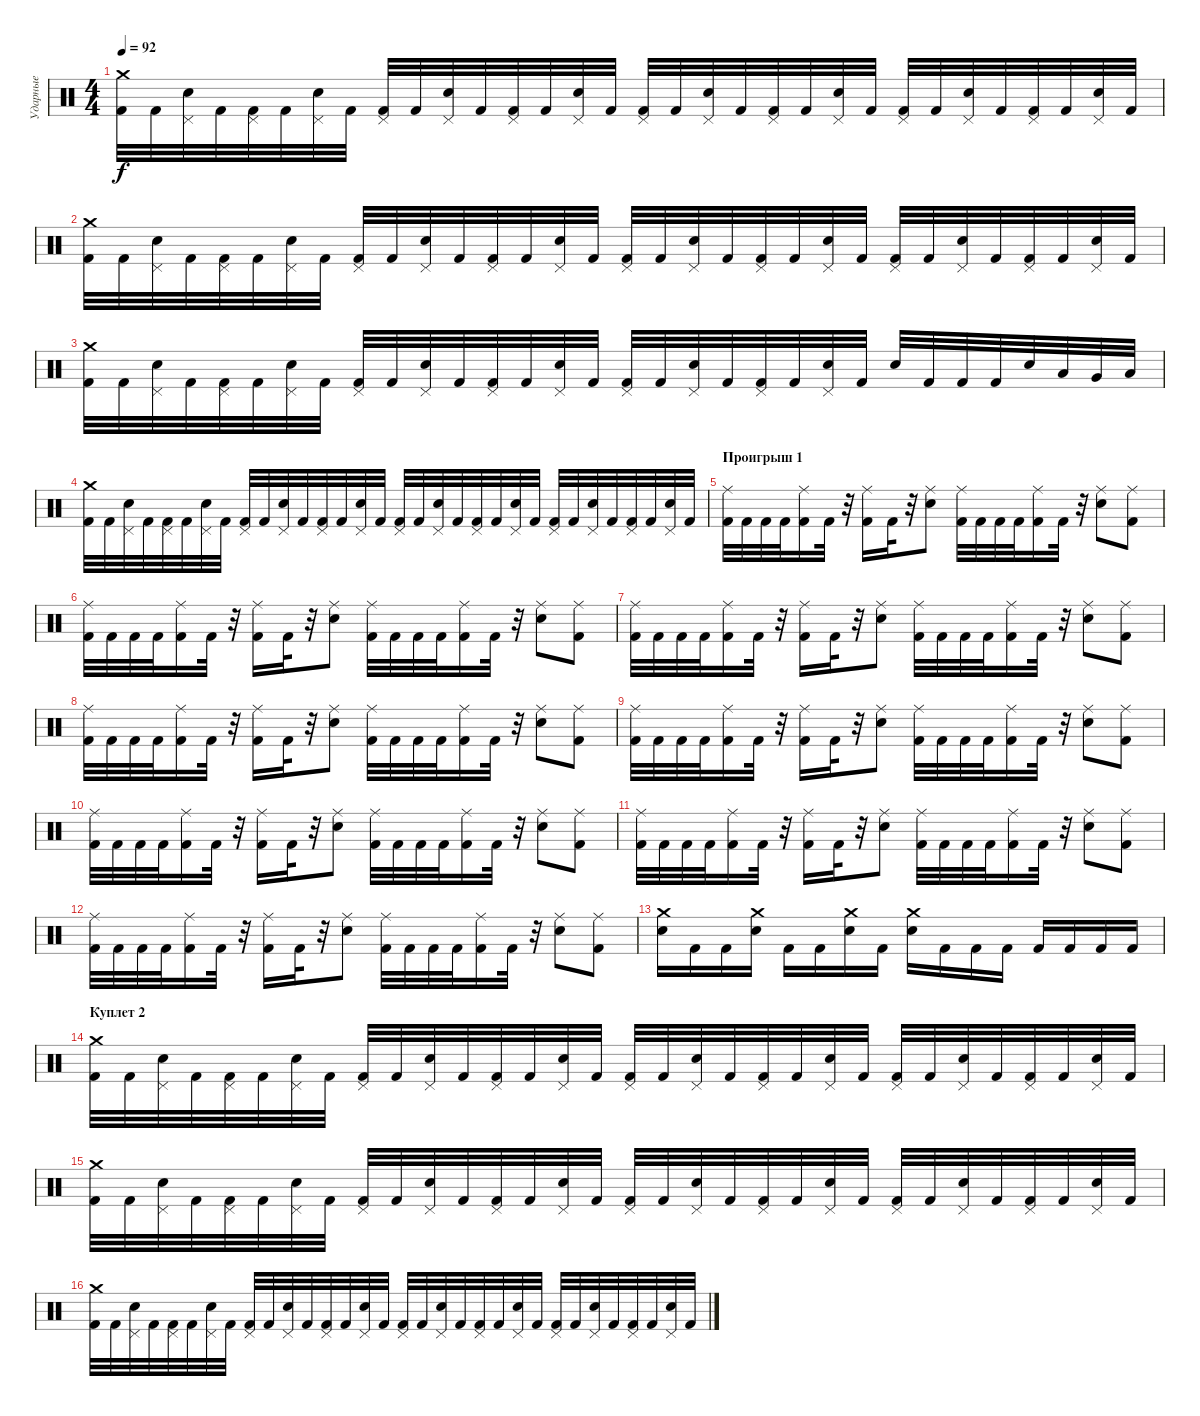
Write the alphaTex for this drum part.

\track ("Ударные" "Ударные") {instrument percussion}
\staff {score}
\articulation defaults
\ts (4 4)
\tempo 92
\clef neutral
\ks c
("Crash medium (hit)" "Kick (hit) 2").32{dy f} "Kick (hit) 2".32 ("Pedal Hi-Hat (hit)" "Electric Snare (hit)").32 "Kick (hit) 2".32 ("Pedal Hi-Hat (hit)" "Kick (hit) 2").32 "Kick (hit) 2".32 ("Pedal Hi-Hat (hit)" "Electric Snare (hit)").32 "Kick (hit) 2".32 ("Kick (hit) 2" "Pedal Hi-Hat (hit)").32 "Kick (hit) 2".32 ("Electric Snare (hit)" "Pedal Hi-Hat (hit)").32 "Kick (hit) 2".32 ("Kick (hit) 2" "Pedal Hi-Hat (hit)").32 "Kick (hit) 2".32 ("Electric Snare (hit)" "Pedal Hi-Hat (hit)").32 "Kick (hit) 2".32 ("Kick (hit) 2" "Pedal Hi-Hat (hit)").32 "Kick (hit) 2".32 ("Electric Snare (hit)" "Pedal Hi-Hat (hit)").32 "Kick (hit) 2".32 ("Kick (hit) 2" "Pedal Hi-Hat (hit)").32 "Kick (hit) 2".32 ("Electric Snare (hit)" "Pedal Hi-Hat (hit)").32 "Kick (hit) 2".32 ("Kick (hit) 2" "Pedal Hi-Hat (hit)").32 "Kick (hit) 2".32 ("Electric Snare (hit)" "Pedal Hi-Hat (hit)").32 "Kick (hit) 2".32 ("Kick (hit) 2" "Pedal Hi-Hat (hit)").32 "Kick (hit) 2".32 ("Electric Snare (hit)" "Pedal Hi-Hat (hit)").32 "Kick (hit) 2".32 |
("Crash medium (hit)" "Kick (hit) 2").32 "Kick (hit) 2".32 ("Pedal Hi-Hat (hit)" "Electric Snare (hit)").32 "Kick (hit) 2".32 ("Pedal Hi-Hat (hit)" "Kick (hit) 2").32 "Kick (hit) 2".32 ("Pedal Hi-Hat (hit)" "Electric Snare (hit)").32 "Kick (hit) 2".32 ("Kick (hit) 2" "Pedal Hi-Hat (hit)").32 "Kick (hit) 2".32 ("Electric Snare (hit)" "Pedal Hi-Hat (hit)").32 "Kick (hit) 2".32 ("Kick (hit) 2" "Pedal Hi-Hat (hit)").32 "Kick (hit) 2".32 ("Electric Snare (hit)" "Pedal Hi-Hat (hit)").32 "Kick (hit) 2".32 ("Kick (hit) 2" "Pedal Hi-Hat (hit)").32 "Kick (hit) 2".32 ("Electric Snare (hit)" "Pedal Hi-Hat (hit)").32 "Kick (hit) 2".32 ("Kick (hit) 2" "Pedal Hi-Hat (hit)").32 "Kick (hit) 2".32 ("Electric Snare (hit)" "Pedal Hi-Hat (hit)").32 "Kick (hit) 2".32 ("Kick (hit) 2" "Pedal Hi-Hat (hit)").32 "Kick (hit) 2".32 ("Electric Snare (hit)" "Pedal Hi-Hat (hit)").32 "Kick (hit) 2".32 ("Kick (hit) 2" "Pedal Hi-Hat (hit)").32 "Kick (hit) 2".32 ("Electric Snare (hit)" "Pedal Hi-Hat (hit)").32 "Kick (hit) 2".32 |
("Crash medium (hit)" "Kick (hit) 2").32 "Kick (hit) 2".32 ("Pedal Hi-Hat (hit)" "Electric Snare (hit)").32 "Kick (hit) 2".32 ("Pedal Hi-Hat (hit)" "Kick (hit) 2").32 "Kick (hit) 2".32 ("Pedal Hi-Hat (hit)" "Electric Snare (hit)").32 "Kick (hit) 2".32 ("Kick (hit) 2" "Pedal Hi-Hat (hit)").32 "Kick (hit) 2".32 ("Electric Snare (hit)" "Pedal Hi-Hat (hit)").32 "Kick (hit) 2".32 ("Kick (hit) 2" "Pedal Hi-Hat (hit)").32 "Kick (hit) 2".32 ("Electric Snare (hit)" "Pedal Hi-Hat (hit)").32 "Kick (hit) 2".32 ("Kick (hit) 2" "Pedal Hi-Hat (hit)").32 "Kick (hit) 2".32 ("Electric Snare (hit)" "Pedal Hi-Hat (hit)").32 "Kick (hit) 2".32 ("Kick (hit) 2" "Pedal Hi-Hat (hit)").32 "Kick (hit) 2".32 ("Electric Snare (hit)" "Pedal Hi-Hat (hit)").32 "Kick (hit) 2".32 "Electric Snare (hit)".32 "Kick (hit) 2".32 "Kick (hit) 2".32 "Kick (hit) 2".32 "Electric Snare (hit)".32 "Low Floor Tom (hit)".32 "Very Low Tom (hit)".32 "Low Tom (hit)".32 |
("Crash medium (hit)" "Kick (hit) 2").32 "Kick (hit) 2".32 ("Pedal Hi-Hat (hit)" "Electric Snare (hit)").32 "Kick (hit) 2".32 ("Pedal Hi-Hat (hit)" "Kick (hit) 2").32 "Kick (hit) 2".32 ("Pedal Hi-Hat (hit)" "Electric Snare (hit)").32 "Kick (hit) 2".32 ("Kick (hit) 2" "Pedal Hi-Hat (hit)").32 "Kick (hit) 2".32 ("Electric Snare (hit)" "Pedal Hi-Hat (hit)").32 "Kick (hit) 2".32 ("Kick (hit) 2" "Pedal Hi-Hat (hit)").32 "Kick (hit) 2".32 ("Electric Snare (hit)" "Pedal Hi-Hat (hit)").32 "Kick (hit) 2".32 ("Kick (hit) 2" "Pedal Hi-Hat (hit)").32 "Kick (hit) 2".32 ("Electric Snare (hit)" "Pedal Hi-Hat (hit)").32 "Kick (hit) 2".32 ("Kick (hit) 2" "Pedal Hi-Hat (hit)").32 "Kick (hit) 2".32 ("Electric Snare (hit)" "Pedal Hi-Hat (hit)").32 "Kick (hit) 2".32 ("Kick (hit) 2" "Pedal Hi-Hat (hit)").32 "Kick (hit) 2".32 ("Electric Snare (hit)" "Pedal Hi-Hat (hit)").32 "Kick (hit) 2".32 ("Kick (hit) 2" "Pedal Hi-Hat (hit)").32 "Kick (hit) 2".32 ("Electric Snare (hit)" "Pedal Hi-Hat (hit)").32 "Kick (hit) 2".32 |
\section ("" "Проигрыш 1")
("Ride (middle)" "Kick (hit) 2").32 "Kick (hit) 2".32 "Kick (hit) 2".32 "Kick (hit) 2".32 ("Ride (middle)" "Kick (hit) 2").16 "Kick (hit) 2".32 r.32 ("Ride (middle)" "Kick (hit) 2").16 "Kick (hit) 2".32 r.32 ("Ride (middle)" "Electric Snare (hit)").8 ("Kick (hit) 2" "Ride (middle)").32 "Kick (hit) 2".32 "Kick (hit) 2".32 "Kick (hit) 2".32 ("Kick (hit) 2" "Ride (middle)").16 "Kick (hit) 2".32 r.32 ("Electric Snare (hit)" "Ride (middle)").8 ("Kick (hit) 2" "Ride (middle)").8 |
("Ride (middle)" "Kick (hit) 2").32 "Kick (hit) 2".32 "Kick (hit) 2".32 "Kick (hit) 2".32 ("Ride (middle)" "Kick (hit) 2").16 "Kick (hit) 2".32 r.32 ("Ride (middle)" "Kick (hit) 2").16 "Kick (hit) 2".32 r.32 ("Ride (middle)" "Electric Snare (hit)").8 ("Kick (hit) 2" "Ride (middle)").32 "Kick (hit) 2".32 "Kick (hit) 2".32 "Kick (hit) 2".32 ("Kick (hit) 2" "Ride (middle)").16 "Kick (hit) 2".32 r.32 ("Electric Snare (hit)" "Ride (middle)").8 ("Kick (hit) 2" "Ride (middle)").8 |
("Ride (middle)" "Kick (hit) 2").32 "Kick (hit) 2".32 "Kick (hit) 2".32 "Kick (hit) 2".32 ("Ride (middle)" "Kick (hit) 2").16 "Kick (hit) 2".32 r.32 ("Ride (middle)" "Kick (hit) 2").16 "Kick (hit) 2".32 r.32 ("Ride (middle)" "Electric Snare (hit)").8 ("Kick (hit) 2" "Ride (middle)").32 "Kick (hit) 2".32 "Kick (hit) 2".32 "Kick (hit) 2".32 ("Kick (hit) 2" "Ride (middle)").16 "Kick (hit) 2".32 r.32 ("Electric Snare (hit)" "Ride (middle)").8 ("Kick (hit) 2" "Ride (middle)").8 |
("Ride (middle)" "Kick (hit) 2").32 "Kick (hit) 2".32 "Kick (hit) 2".32 "Kick (hit) 2".32 ("Ride (middle)" "Kick (hit) 2").16 "Kick (hit) 2".32 r.32 ("Ride (middle)" "Kick (hit) 2").16 "Kick (hit) 2".32 r.32 ("Ride (middle)" "Electric Snare (hit)").8 ("Kick (hit) 2" "Ride (middle)").32 "Kick (hit) 2".32 "Kick (hit) 2".32 "Kick (hit) 2".32 ("Kick (hit) 2" "Ride (middle)").16 "Kick (hit) 2".32 r.32 ("Electric Snare (hit)" "Ride (middle)").8 ("Kick (hit) 2" "Ride (middle)").8 |
("Ride (middle)" "Kick (hit) 2").32 "Kick (hit) 2".32 "Kick (hit) 2".32 "Kick (hit) 2".32 ("Ride (middle)" "Kick (hit) 2").16 "Kick (hit) 2".32 r.32 ("Ride (middle)" "Kick (hit) 2").16 "Kick (hit) 2".32 r.32 ("Ride (middle)" "Electric Snare (hit)").8 ("Kick (hit) 2" "Ride (middle)").32 "Kick (hit) 2".32 "Kick (hit) 2".32 "Kick (hit) 2".32 ("Kick (hit) 2" "Ride (middle)").16 "Kick (hit) 2".32 r.32 ("Electric Snare (hit)" "Ride (middle)").8 ("Kick (hit) 2" "Ride (middle)").8 |
("Ride (middle)" "Kick (hit) 2").32 "Kick (hit) 2".32 "Kick (hit) 2".32 "Kick (hit) 2".32 ("Ride (middle)" "Kick (hit) 2").16 "Kick (hit) 2".32 r.32 ("Ride (middle)" "Kick (hit) 2").16 "Kick (hit) 2".32 r.32 ("Ride (middle)" "Electric Snare (hit)").8 ("Kick (hit) 2" "Ride (middle)").32 "Kick (hit) 2".32 "Kick (hit) 2".32 "Kick (hit) 2".32 ("Kick (hit) 2" "Ride (middle)").16 "Kick (hit) 2".32 r.32 ("Electric Snare (hit)" "Ride (middle)").8 ("Kick (hit) 2" "Ride (middle)").8 |
("Ride (middle)" "Kick (hit) 2").32 "Kick (hit) 2".32 "Kick (hit) 2".32 "Kick (hit) 2".32 ("Ride (middle)" "Kick (hit) 2").16 "Kick (hit) 2".32 r.32 ("Ride (middle)" "Kick (hit) 2").16 "Kick (hit) 2".32 r.32 ("Ride (middle)" "Electric Snare (hit)").8 ("Kick (hit) 2" "Ride (middle)").32 "Kick (hit) 2".32 "Kick (hit) 2".32 "Kick (hit) 2".32 ("Kick (hit) 2" "Ride (middle)").16 "Kick (hit) 2".32 r.32 ("Electric Snare (hit)" "Ride (middle)").8 ("Kick (hit) 2" "Ride (middle)").8 |
("Ride (middle)" "Kick (hit) 2").32 "Kick (hit) 2".32 "Kick (hit) 2".32 "Kick (hit) 2".32 ("Ride (middle)" "Kick (hit) 2").16 "Kick (hit) 2".32 r.32 ("Ride (middle)" "Kick (hit) 2").16 "Kick (hit) 2".32 r.32 ("Ride (middle)" "Electric Snare (hit)").8 ("Kick (hit) 2" "Ride (middle)").32 "Kick (hit) 2".32 "Kick (hit) 2".32 "Kick (hit) 2".32 ("Kick (hit) 2" "Ride (middle)").16 "Kick (hit) 2".32 r.32 ("Electric Snare (hit)" "Ride (middle)").8 ("Kick (hit) 2" "Ride (middle)").8 |
("Crash medium (hit)" "Electric Snare (hit)").16 "Kick (hit) 2".16 "Kick (hit) 2".16 ("Crash medium (hit)" "Electric Snare (hit)").16 "Kick (hit) 2".16 "Kick (hit) 2".16 ("Crash medium (hit)" "Electric Snare (hit)").16 "Kick (hit) 2".16 ("Crash medium (hit)" "Electric Snare (hit)").16 "Kick (hit) 2".16 "Kick (hit) 2".16 "Kick (hit) 2".16 "Kick (hit) 2".16 "Kick (hit) 2".16 "Kick (hit) 2".16 "Kick (hit) 2".16 |
\section ("" "Куплет 2")
("Crash medium (hit)" "Kick (hit) 2").32 "Kick (hit) 2".32 ("Pedal Hi-Hat (hit)" "Electric Snare (hit)").32 "Kick (hit) 2".32 ("Pedal Hi-Hat (hit)" "Kick (hit) 2").32 "Kick (hit) 2".32 ("Pedal Hi-Hat (hit)" "Electric Snare (hit)").32 "Kick (hit) 2".32 ("Kick (hit) 2" "Pedal Hi-Hat (hit)").32 "Kick (hit) 2".32 ("Electric Snare (hit)" "Pedal Hi-Hat (hit)").32 "Kick (hit) 2".32 ("Kick (hit) 2" "Pedal Hi-Hat (hit)").32 "Kick (hit) 2".32 ("Electric Snare (hit)" "Pedal Hi-Hat (hit)").32 "Kick (hit) 2".32 ("Kick (hit) 2" "Pedal Hi-Hat (hit)").32 "Kick (hit) 2".32 ("Electric Snare (hit)" "Pedal Hi-Hat (hit)").32 "Kick (hit) 2".32 ("Kick (hit) 2" "Pedal Hi-Hat (hit)").32 "Kick (hit) 2".32 ("Electric Snare (hit)" "Pedal Hi-Hat (hit)").32 "Kick (hit) 2".32 ("Kick (hit) 2" "Pedal Hi-Hat (hit)").32 "Kick (hit) 2".32 ("Electric Snare (hit)" "Pedal Hi-Hat (hit)").32 "Kick (hit) 2".32 ("Kick (hit) 2" "Pedal Hi-Hat (hit)").32 "Kick (hit) 2".32 ("Electric Snare (hit)" "Pedal Hi-Hat (hit)").32 "Kick (hit) 2".32 |
("Crash medium (hit)" "Kick (hit) 2").32 "Kick (hit) 2".32 ("Pedal Hi-Hat (hit)" "Electric Snare (hit)").32 "Kick (hit) 2".32 ("Pedal Hi-Hat (hit)" "Kick (hit) 2").32 "Kick (hit) 2".32 ("Pedal Hi-Hat (hit)" "Electric Snare (hit)").32 "Kick (hit) 2".32 ("Kick (hit) 2" "Pedal Hi-Hat (hit)").32 "Kick (hit) 2".32 ("Electric Snare (hit)" "Pedal Hi-Hat (hit)").32 "Kick (hit) 2".32 ("Kick (hit) 2" "Pedal Hi-Hat (hit)").32 "Kick (hit) 2".32 ("Electric Snare (hit)" "Pedal Hi-Hat (hit)").32 "Kick (hit) 2".32 ("Kick (hit) 2" "Pedal Hi-Hat (hit)").32 "Kick (hit) 2".32 ("Electric Snare (hit)" "Pedal Hi-Hat (hit)").32 "Kick (hit) 2".32 ("Kick (hit) 2" "Pedal Hi-Hat (hit)").32 "Kick (hit) 2".32 ("Electric Snare (hit)" "Pedal Hi-Hat (hit)").32 "Kick (hit) 2".32 ("Kick (hit) 2" "Pedal Hi-Hat (hit)").32 "Kick (hit) 2".32 ("Electric Snare (hit)" "Pedal Hi-Hat (hit)").32 "Kick (hit) 2".32 ("Kick (hit) 2" "Pedal Hi-Hat (hit)").32 "Kick (hit) 2".32 ("Electric Snare (hit)" "Pedal Hi-Hat (hit)").32 "Kick (hit) 2".32 |
("Crash medium (hit)" "Kick (hit) 2").32 "Kick (hit) 2".32 ("Pedal Hi-Hat (hit)" "Electric Snare (hit)").32 "Kick (hit) 2".32 ("Pedal Hi-Hat (hit)" "Kick (hit) 2").32 "Kick (hit) 2".32 ("Pedal Hi-Hat (hit)" "Electric Snare (hit)").32 "Kick (hit) 2".32 ("Kick (hit) 2" "Pedal Hi-Hat (hit)").32 "Kick (hit) 2".32 ("Electric Snare (hit)" "Pedal Hi-Hat (hit)").32 "Kick (hit) 2".32 ("Kick (hit) 2" "Pedal Hi-Hat (hit)").32 "Kick (hit) 2".32 ("Electric Snare (hit)" "Pedal Hi-Hat (hit)").32 "Kick (hit) 2".32 ("Kick (hit) 2" "Pedal Hi-Hat (hit)").32 "Kick (hit) 2".32 ("Electric Snare (hit)" "Pedal Hi-Hat (hit)").32 "Kick (hit) 2".32 ("Kick (hit) 2" "Pedal Hi-Hat (hit)").32 "Kick (hit) 2".32 ("Electric Snare (hit)" "Pedal Hi-Hat (hit)").32 "Kick (hit) 2".32 ("Kick (hit) 2" "Pedal Hi-Hat (hit)").32 "Kick (hit) 2".32 ("Electric Snare (hit)" "Pedal Hi-Hat (hit)").32 "Kick (hit) 2".32 ("Kick (hit) 2" "Pedal Hi-Hat (hit)").32 "Kick (hit) 2".32 ("Electric Snare (hit)" "Pedal Hi-Hat (hit)").32 "Kick (hit) 2".32
